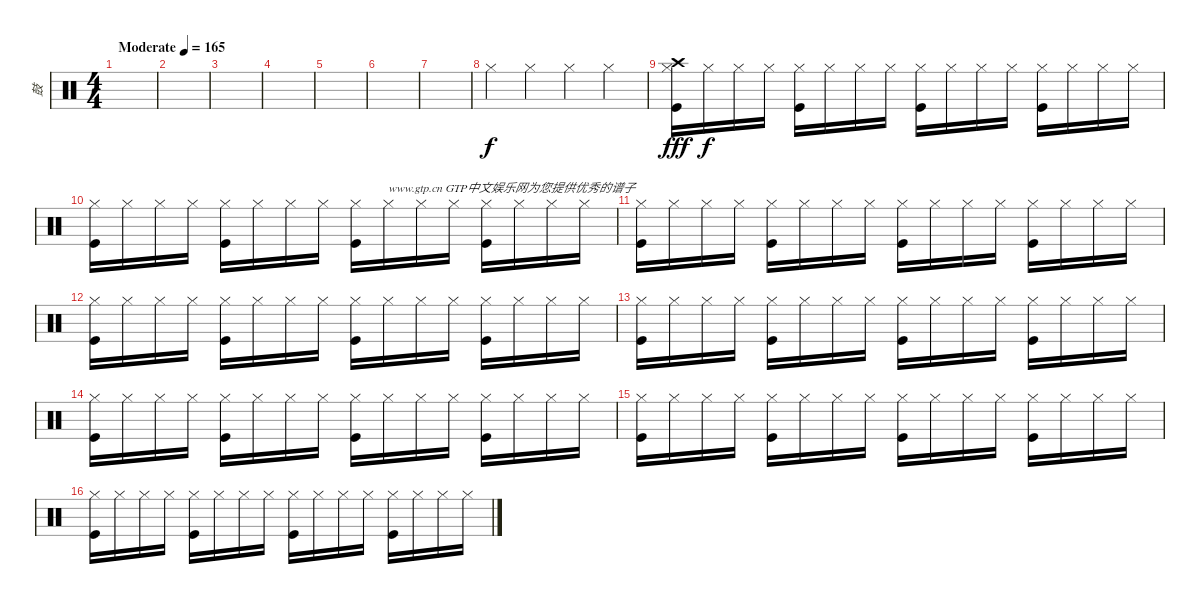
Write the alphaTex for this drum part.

\track ("鼓" "鼓") {instrument percussion}
\staff {score}
\articulation defaults
\ts (4 4)
\tempo (165 "Moderate")
\clef neutral
\ks c
|
|
|
|
|
|
|
"Hi-Hat (closed)".4 "Hi-Hat (closed)".4 "Hi-Hat (closed)".4 "Hi-Hat (closed)".4 |
("Hi-Hat (closed)" "Crash high (hit)" "Kick (hit)").16{dy fff} "Hi-Hat (closed)".16{dy f} "Hi-Hat (closed)".16 "Hi-Hat (closed)".16 ("Hi-Hat (closed)" "Kick (hit)").16 "Hi-Hat (closed)".16 "Hi-Hat (closed)".16 "Hi-Hat (closed)".16 ("Hi-Hat (closed)" "Kick (hit)").16 "Hi-Hat (closed)".16 "Hi-Hat (closed)".16 "Hi-Hat (closed)".16 ("Hi-Hat (closed)" "Kick (hit)").16 "Hi-Hat (closed)".16 "Hi-Hat (closed)".16 "Hi-Hat (closed)".16 |
("Hi-Hat (closed)" "Kick (hit)").16 "Hi-Hat (closed)".16 "Hi-Hat (closed)".16 "Hi-Hat (closed)".16 ("Hi-Hat (closed)" "Kick (hit)").16 "Hi-Hat (closed)".16 "Hi-Hat (closed)".16 "Hi-Hat (closed)".16 ("Hi-Hat (closed)" "Kick (hit)").16 "Hi-Hat (closed)".16{txt "www.gtp.cn GTP中文娱乐网为您提供优秀的谱子"} "Hi-Hat (closed)".16 "Hi-Hat (closed)".16 ("Hi-Hat (closed)" "Kick (hit)").16 "Hi-Hat (closed)".16 "Hi-Hat (closed)".16 "Hi-Hat (closed)".16 |
("Hi-Hat (closed)" "Kick (hit)").16 "Hi-Hat (closed)".16 "Hi-Hat (closed)".16 "Hi-Hat (closed)".16 ("Hi-Hat (closed)" "Kick (hit)").16 "Hi-Hat (closed)".16 "Hi-Hat (closed)".16 "Hi-Hat (closed)".16 ("Hi-Hat (closed)" "Kick (hit)").16 "Hi-Hat (closed)".16 "Hi-Hat (closed)".16 "Hi-Hat (closed)".16 ("Hi-Hat (closed)" "Kick (hit)").16 "Hi-Hat (closed)".16 "Hi-Hat (closed)".16 "Hi-Hat (closed)".16 |
("Hi-Hat (closed)" "Kick (hit)").16 "Hi-Hat (closed)".16 "Hi-Hat (closed)".16 "Hi-Hat (closed)".16 ("Hi-Hat (closed)" "Kick (hit)").16 "Hi-Hat (closed)".16 "Hi-Hat (closed)".16 "Hi-Hat (closed)".16 ("Hi-Hat (closed)" "Kick (hit)").16 "Hi-Hat (closed)".16 "Hi-Hat (closed)".16 "Hi-Hat (closed)".16 ("Hi-Hat (closed)" "Kick (hit)").16 "Hi-Hat (closed)".16 "Hi-Hat (closed)".16 "Hi-Hat (closed)".16 |
("Hi-Hat (closed)" "Kick (hit)").16 "Hi-Hat (closed)".16 "Hi-Hat (closed)".16 "Hi-Hat (closed)".16 ("Hi-Hat (closed)" "Kick (hit)").16 "Hi-Hat (closed)".16 "Hi-Hat (closed)".16 "Hi-Hat (closed)".16 ("Hi-Hat (closed)" "Kick (hit)").16 "Hi-Hat (closed)".16 "Hi-Hat (closed)".16 "Hi-Hat (closed)".16 ("Hi-Hat (closed)" "Kick (hit)").16 "Hi-Hat (closed)".16 "Hi-Hat (closed)".16 "Hi-Hat (closed)".16 |
("Hi-Hat (closed)" "Kick (hit)").16 "Hi-Hat (closed)".16 "Hi-Hat (closed)".16 "Hi-Hat (closed)".16 ("Hi-Hat (closed)" "Kick (hit)").16 "Hi-Hat (closed)".16 "Hi-Hat (closed)".16 "Hi-Hat (closed)".16 ("Hi-Hat (closed)" "Kick (hit)").16 "Hi-Hat (closed)".16 "Hi-Hat (closed)".16 "Hi-Hat (closed)".16 ("Hi-Hat (closed)" "Kick (hit)").16 "Hi-Hat (closed)".16 "Hi-Hat (closed)".16 "Hi-Hat (closed)".16 |
("Hi-Hat (closed)" "Kick (hit)").16 "Hi-Hat (closed)".16 "Hi-Hat (closed)".16 "Hi-Hat (closed)".16 ("Hi-Hat (closed)" "Kick (hit)").16 "Hi-Hat (closed)".16 "Hi-Hat (closed)".16 "Hi-Hat (closed)".16 ("Hi-Hat (closed)" "Kick (hit)").16 "Hi-Hat (closed)".16 "Hi-Hat (closed)".16 "Hi-Hat (closed)".16 ("Hi-Hat (closed)" "Kick (hit)").16 "Hi-Hat (closed)".16 "Hi-Hat (closed)".16 "Hi-Hat (closed)".16 |
("Hi-Hat (closed)" "Kick (hit)").16 "Hi-Hat (closed)".16 "Hi-Hat (closed)".16 "Hi-Hat (closed)".16 ("Hi-Hat (closed)" "Kick (hit)").16 "Hi-Hat (closed)".16 "Hi-Hat (closed)".16 "Hi-Hat (closed)".16 ("Hi-Hat (closed)" "Kick (hit)").16 "Hi-Hat (closed)".16 "Hi-Hat (closed)".16 "Hi-Hat (closed)".16 ("Hi-Hat (closed)" "Kick (hit)").16 "Hi-Hat (closed)".16 "Hi-Hat (closed)".16 "Hi-Hat (closed)".16
